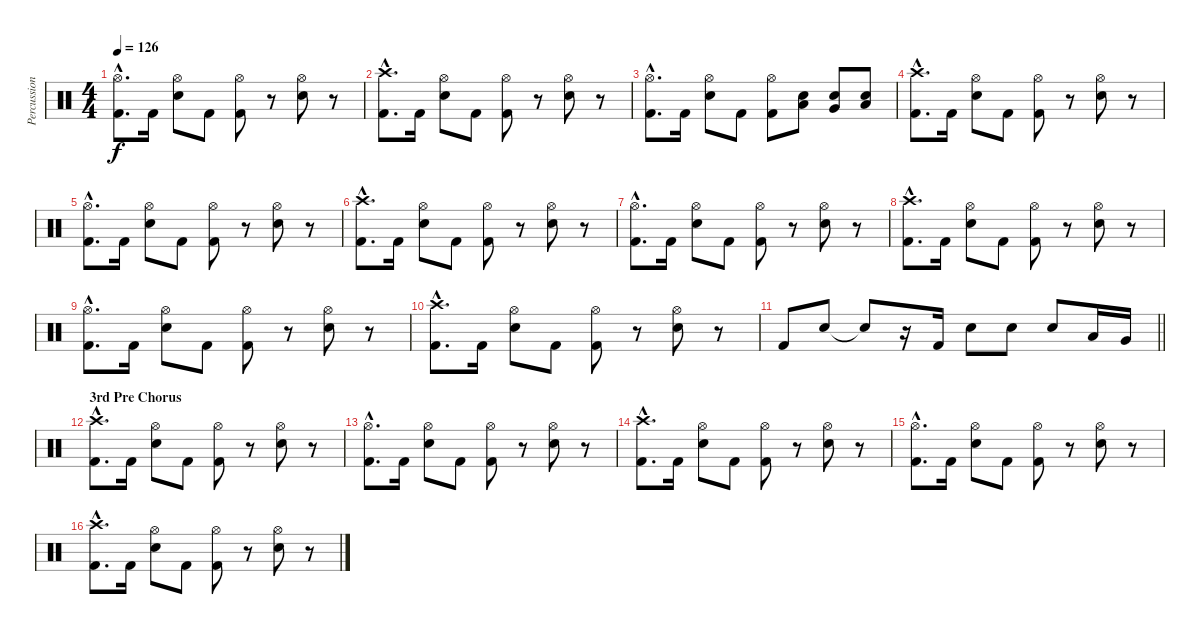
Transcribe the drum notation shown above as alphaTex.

\track ("Percussion" "Percussion") {instrument percussion}
\staff {score}
\articulation defaults
\ts (4 4)
\tempo 126
\clef neutral
\ks c
("Hi-Hat (open)"{hac} "Kick (hit) 2"{hac}).8{d dy f} "Kick (hit) 2".16 ("Hi-Hat (open)" "Snare (hit) 2").8 "Kick (hit) 2".8 ("Hi-Hat (open)" "Kick (hit) 2").8 r.8 ("Hi-Hat (open)" "Snare (hit) 2").8 r.8 |
("Crash high (hit)"{hac} "Kick (hit) 2"{hac}).8{d} "Kick (hit) 2".16 ("Hi-Hat (open)" "Snare (hit) 2").8 "Kick (hit) 2".8 ("Hi-Hat (open)" "Kick (hit) 2").8 r.8 ("Hi-Hat (open)" "Snare (hit) 2").8 r.8 |
("Hi-Hat (open)"{hac} "Kick (hit) 2"{hac}).8{d} "Kick (hit) 2".16 ("Hi-Hat (open)" "Snare (hit) 2").8 "Kick (hit) 2".8 ("Hi-Hat (open)" "Kick (hit) 2").8 ("Snare (hit) 2" "Low Tom (hit)").8 ("Snare (hit) 2" "Very Low Tom (hit)").8 ("Snare (hit) 2" "Low Floor Tom (hit)").8 |
("Crash high (hit)"{hac} "Kick (hit) 2"{hac}).8{d} "Kick (hit) 2".16 ("Hi-Hat (open)" "Snare (hit) 2").8 "Kick (hit) 2".8 ("Hi-Hat (open)" "Kick (hit) 2").8 r.8 ("Hi-Hat (open)" "Snare (hit) 2").8 r.8 |
("Hi-Hat (open)"{hac} "Kick (hit) 2"{hac}).8{d} "Kick (hit) 2".16 ("Hi-Hat (open)" "Snare (hit) 2").8 "Kick (hit) 2".8 ("Hi-Hat (open)" "Kick (hit) 2").8 r.8 ("Hi-Hat (open)" "Snare (hit) 2").8 r.8 |
("Crash high (hit)"{hac} "Kick (hit) 2"{hac}).8{d} "Kick (hit) 2".16 ("Hi-Hat (open)" "Snare (hit) 2").8 "Kick (hit) 2".8 ("Hi-Hat (open)" "Kick (hit) 2").8 r.8 ("Hi-Hat (open)" "Snare (hit) 2").8 r.8 |
("Hi-Hat (open)"{hac} "Kick (hit) 2"{hac}).8{d} "Kick (hit) 2".16 ("Hi-Hat (open)" "Snare (hit) 2").8 "Kick (hit) 2".8 ("Hi-Hat (open)" "Kick (hit) 2").8 r.8 ("Hi-Hat (open)" "Snare (hit) 2").8 r.8 |
("Crash high (hit)"{hac} "Kick (hit) 2"{hac}).8{d} "Kick (hit) 2".16 ("Hi-Hat (open)" "Snare (hit) 2").8 "Kick (hit) 2".8 ("Hi-Hat (open)" "Kick (hit) 2").8 r.8 ("Hi-Hat (open)" "Snare (hit) 2").8 r.8 |
("Hi-Hat (open)"{hac} "Kick (hit) 2"{hac}).8{d} "Kick (hit) 2".16 ("Hi-Hat (open)" "Snare (hit) 2").8 "Kick (hit) 2".8 ("Hi-Hat (open)" "Kick (hit) 2").8 r.8 ("Hi-Hat (open)" "Snare (hit) 2").8 r.8 |
("Crash high (hit)"{hac} "Kick (hit) 2"{hac}).8{d} "Kick (hit) 2".16 ("Hi-Hat (open)" "Snare (hit) 2").8 "Kick (hit) 2".8 ("Hi-Hat (open)" "Kick (hit) 2").8 r.8 ("Hi-Hat (open)" "Snare (hit) 2").8 r.8 |
\barLineRight lightlight "Kick (hit) 2".8 "Snare (hit) 2".8 "Snare (hit)"{t}.8
r.16 "Kick (hit) 2".16 "Snare (hit) 2".8 "Snare (hit) 2".8 "Snare (hit) 2".8 "Low Tom (hit)".16 "Very Low Tom (hit)".16 |
\section ("" "3rd Pre Chorus")
("Crash high (hit)"{hac} "Kick (hit) 2"{hac}).8{d} "Kick (hit) 2".16 ("Hi-Hat (open)" "Snare (hit) 2").8 "Kick (hit) 2".8 ("Hi-Hat (open)" "Kick (hit) 2").8 r.8 ("Hi-Hat (open)" "Snare (hit) 2").8 r.8 |
("Hi-Hat (open)"{hac} "Kick (hit) 2"{hac}).8{d} "Kick (hit) 2".16 ("Hi-Hat (open)" "Snare (hit) 2").8 "Kick (hit) 2".8 ("Hi-Hat (open)" "Kick (hit) 2").8 r.8 ("Hi-Hat (open)" "Snare (hit) 2").8 r.8 |
("Crash high (hit)"{hac} "Kick (hit) 2"{hac}).8{d} "Kick (hit) 2".16 ("Hi-Hat (open)" "Snare (hit) 2").8 "Kick (hit) 2".8 ("Hi-Hat (open)" "Kick (hit) 2").8 r.8 ("Hi-Hat (open)" "Snare (hit) 2").8 r.8 |
("Hi-Hat (open)"{hac} "Kick (hit) 2"{hac}).8{d} "Kick (hit) 2".16 ("Hi-Hat (open)" "Snare (hit) 2").8 "Kick (hit) 2".8 ("Hi-Hat (open)" "Kick (hit) 2").8 r.8 ("Hi-Hat (open)" "Snare (hit) 2").8 r.8 |
("Crash high (hit)"{hac} "Kick (hit) 2"{hac}).8{d} "Kick (hit) 2".16 ("Hi-Hat (open)" "Snare (hit) 2").8 "Kick (hit) 2".8 ("Hi-Hat (open)" "Kick (hit) 2").8 r.8 ("Hi-Hat (open)" "Snare (hit) 2").8 r.8
